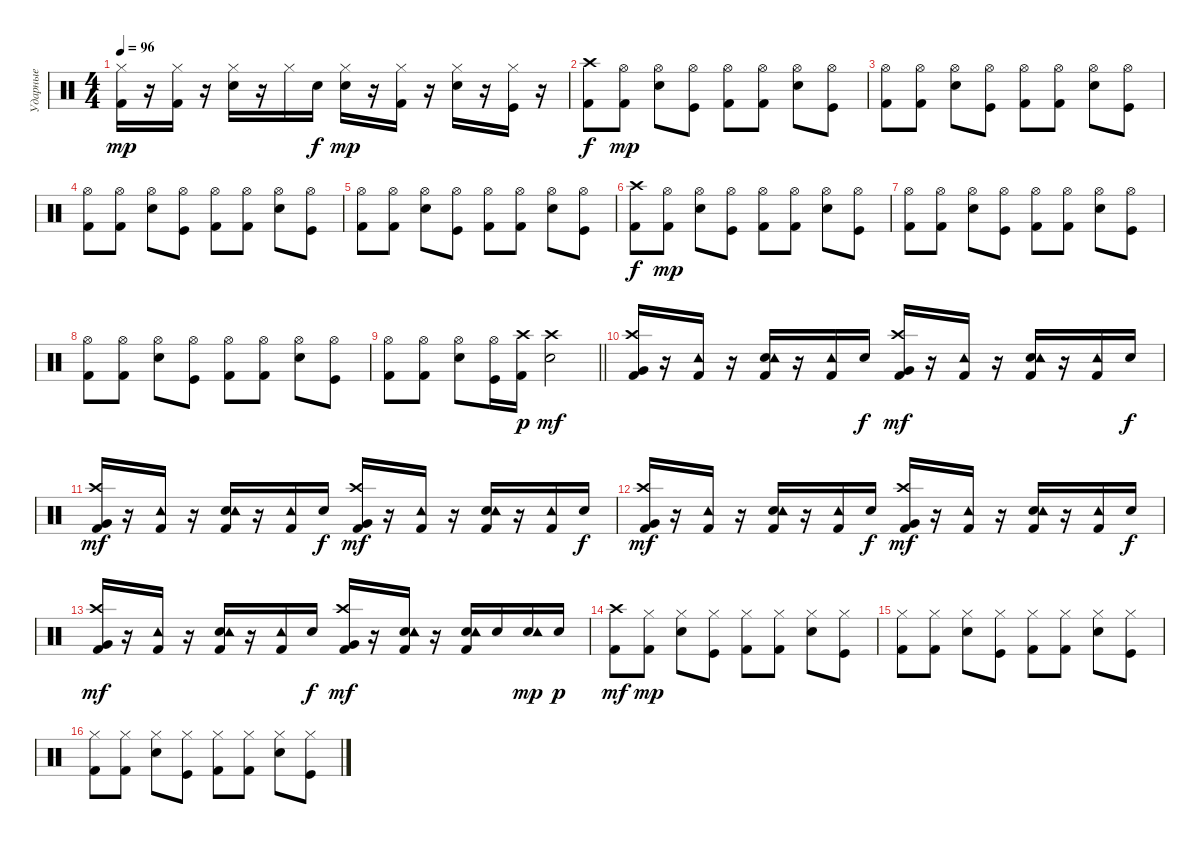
\track ("Ударные" "Ударные") {instrument percussion}
\staff {score}
\articulation defaults
\ts (4 4)
\tempo 96
\clef neutral
\ks c
("Hi-Hat (closed)" "Kick (hit) 2").16{dy mp} r.16 ("Hi-Hat (closed)" "Kick (hit) 2").16 r.16 ("Hi-Hat (closed)" "Electric Snare (hit)").16 r.16 "Hi-Hat (closed)".16 "Electric Snare (hit)".16{dy f} ("Hi-Hat (closed)" "Electric Snare (hit)").16{dy mp} r.16 ("Hi-Hat (closed)" "Kick (hit) 2").16 r.16 ("Hi-Hat (closed)" "Electric Snare (hit)").16 r.16 ("Hi-Hat (closed)" "Kick (hit)").16 r.16 |
("Crash high (hit)" "Kick (hit) 2").8{dy f} ("Hi-Hat (open)" "Kick (hit) 2").8{dy mp} ("Hi-Hat (open)" "Electric Snare (hit)").8 ("Hi-Hat (open)" "Kick (hit)").8 ("Hi-Hat (open)" "Kick (hit) 2").8 ("Hi-Hat (open)" "Kick (hit) 2").8 ("Hi-Hat (open)" "Electric Snare (hit)").8 ("Hi-Hat (open)" "Kick (hit)").8 |
("Hi-Hat (open)" "Kick (hit) 2").8 ("Hi-Hat (open)" "Kick (hit) 2").8 ("Hi-Hat (open)" "Electric Snare (hit)").8 ("Hi-Hat (open)" "Kick (hit)").8 ("Hi-Hat (open)" "Kick (hit) 2").8 ("Hi-Hat (open)" "Kick (hit) 2").8 ("Hi-Hat (open)" "Electric Snare (hit)").8 ("Hi-Hat (open)" "Kick (hit)").8 |
("Hi-Hat (open)" "Kick (hit) 2").8 ("Hi-Hat (open)" "Kick (hit) 2").8 ("Hi-Hat (open)" "Electric Snare (hit)").8 ("Hi-Hat (open)" "Kick (hit)").8 ("Hi-Hat (open)" "Kick (hit) 2").8 ("Hi-Hat (open)" "Kick (hit) 2").8 ("Hi-Hat (open)" "Electric Snare (hit)").8 ("Hi-Hat (open)" "Kick (hit)").8 |
("Hi-Hat (open)" "Kick (hit) 2").8 ("Hi-Hat (open)" "Kick (hit) 2").8 ("Hi-Hat (open)" "Electric Snare (hit)").8 ("Hi-Hat (open)" "Kick (hit)").8 ("Hi-Hat (open)" "Kick (hit) 2").8 ("Hi-Hat (open)" "Kick (hit) 2").8 ("Hi-Hat (open)" "Electric Snare (hit)").8 ("Hi-Hat (open)" "Kick (hit)").8 |
("Crash high (hit)" "Kick (hit) 2").8{dy f} ("Hi-Hat (open)" "Kick (hit) 2").8{dy mp} ("Hi-Hat (open)" "Electric Snare (hit)").8 ("Hi-Hat (open)" "Kick (hit)").8 ("Hi-Hat (open)" "Kick (hit) 2").8 ("Hi-Hat (open)" "Kick (hit) 2").8 ("Hi-Hat (open)" "Electric Snare (hit)").8 ("Hi-Hat (open)" "Kick (hit)").8 |
("Hi-Hat (open)" "Kick (hit) 2").8 ("Hi-Hat (open)" "Kick (hit) 2").8 ("Hi-Hat (open)" "Electric Snare (hit)").8 ("Hi-Hat (open)" "Kick (hit)").8 ("Hi-Hat (open)" "Kick (hit) 2").8 ("Hi-Hat (open)" "Kick (hit) 2").8 ("Hi-Hat (open)" "Electric Snare (hit)").8 ("Hi-Hat (open)" "Kick (hit)").8 |
("Hi-Hat (open)" "Kick (hit) 2").8 ("Hi-Hat (open)" "Kick (hit) 2").8 ("Hi-Hat (open)" "Electric Snare (hit)").8 ("Hi-Hat (open)" "Kick (hit)").8 ("Hi-Hat (open)" "Kick (hit) 2").8 ("Hi-Hat (open)" "Kick (hit) 2").8 ("Hi-Hat (open)" "Electric Snare (hit)").8 ("Hi-Hat (open)" "Kick (hit)").8 |
\barLineRight lightlight
("Hi-Hat (open)" "Kick (hit) 2").8 ("Hi-Hat (open)" "Kick (hit) 2").8 ("Hi-Hat (open)" "Electric Snare (hit)").8 ("Hi-Hat (open)" "Kick (hit)").16 ("Crash high (hit)" "Kick (hit) 2").16{dy p} ("Crash high (hit)" "Electric Snare (hit)").2{dy mf} |
("Very Low Tom (hit)" "Crash high (hit)" "Kick (hit) 2").16 r.16 ("Tambourine (hit)" "Kick (hit) 2").16 r.16 ("Electric Snare (hit)" "Tambourine (hit)" "Kick (hit) 2").16 r.16 ("Tambourine (hit)" "Kick (hit) 2").16 "Electric Snare (hit)".16{dy f} ("Very Low Tom (hit)" "Crash high (hit)" "Kick (hit) 2").16{dy mf} r.16 ("Tambourine (hit)" "Kick (hit) 2").16 r.16 ("Electric Snare (hit)" "Tambourine (hit)" "Kick (hit) 2").16 r.16 ("Tambourine (hit)" "Kick (hit) 2").16 "Electric Snare (hit)".16{dy f} |
("Very Low Tom (hit)" "Crash high (hit)" "Kick (hit) 2").16{dy mf} r.16 ("Tambourine (hit)" "Kick (hit) 2").16 r.16 ("Electric Snare (hit)" "Tambourine (hit)" "Kick (hit) 2").16 r.16 ("Tambourine (hit)" "Kick (hit) 2").16 "Electric Snare (hit)".16{dy f} ("Very Low Tom (hit)" "Crash high (hit)" "Kick (hit) 2").16{dy mf} r.16 ("Tambourine (hit)" "Kick (hit) 2").16 r.16 ("Electric Snare (hit)" "Tambourine (hit)" "Kick (hit) 2").16 r.16 ("Tambourine (hit)" "Kick (hit) 2").16 "Electric Snare (hit)".16{dy f} |
("Very Low Tom (hit)" "Crash high (hit)" "Kick (hit) 2").16{dy mf} r.16 ("Tambourine (hit)" "Kick (hit) 2").16 r.16 ("Electric Snare (hit)" "Tambourine (hit)" "Kick (hit) 2").16 r.16 ("Tambourine (hit)" "Kick (hit) 2").16 "Electric Snare (hit)".16{dy f} ("Very Low Tom (hit)" "Crash high (hit)" "Kick (hit) 2").16{dy mf} r.16 ("Tambourine (hit)" "Kick (hit) 2").16 r.16 ("Electric Snare (hit)" "Tambourine (hit)" "Kick (hit) 2").16 r.16 ("Tambourine (hit)" "Kick (hit) 2").16 "Electric Snare (hit)".16{dy f} |
("Very Low Tom (hit)" "Crash high (hit)" "Kick (hit) 2").16{dy mf} r.16 ("Tambourine (hit)" "Kick (hit) 2").16 r.16 ("Electric Snare (hit)" "Tambourine (hit)" "Kick (hit) 2").16 r.16 ("Tambourine (hit)" "Kick (hit) 2").16 "Electric Snare (hit)".16{dy f} ("Very Low Tom (hit)" "Crash high (hit)" "Kick (hit) 2").16{dy mf} r.16 ("Electric Snare (hit)" "Tambourine (hit)" "Kick (hit) 2").16 r.16 ("Electric Snare (hit)" "Tambourine (hit)" "Kick (hit) 2").16 "Electric Snare (hit)".16 ("Electric Snare (hit)" "Tambourine (hit)").16{dy mp} "Electric Snare (hit)".16{dy p} |
("Crash high (hit)" "Kick (hit) 2").8{dy mf} ("Hi-Hat (closed)" "Kick (hit) 2").8{dy mp} ("Hi-Hat (closed)" "Electric Snare (hit)").8 ("Hi-Hat (closed)" "Kick (hit)").8 ("Hi-Hat (closed)" "Kick (hit) 2").8 ("Hi-Hat (closed)" "Kick (hit) 2").8 ("Hi-Hat (closed)" "Electric Snare (hit)").8 ("Hi-Hat (closed)" "Kick (hit)").8 |
("Hi-Hat (closed)" "Kick (hit) 2").8 ("Hi-Hat (closed)" "Kick (hit) 2").8 ("Hi-Hat (closed)" "Electric Snare (hit)").8 ("Hi-Hat (closed)" "Kick (hit)").8 ("Hi-Hat (closed)" "Kick (hit) 2").8 ("Hi-Hat (closed)" "Kick (hit) 2").8 ("Hi-Hat (closed)" "Electric Snare (hit)").8 ("Hi-Hat (closed)" "Kick (hit)").8 |
("Hi-Hat (closed)" "Kick (hit) 2").8 ("Hi-Hat (closed)" "Kick (hit) 2").8 ("Hi-Hat (closed)" "Electric Snare (hit)").8 ("Hi-Hat (closed)" "Kick (hit)").8 ("Hi-Hat (closed)" "Kick (hit) 2").8 ("Hi-Hat (closed)" "Kick (hit) 2").8 ("Hi-Hat (closed)" "Electric Snare (hit)").8 ("Hi-Hat (closed)" "Kick (hit)").8
